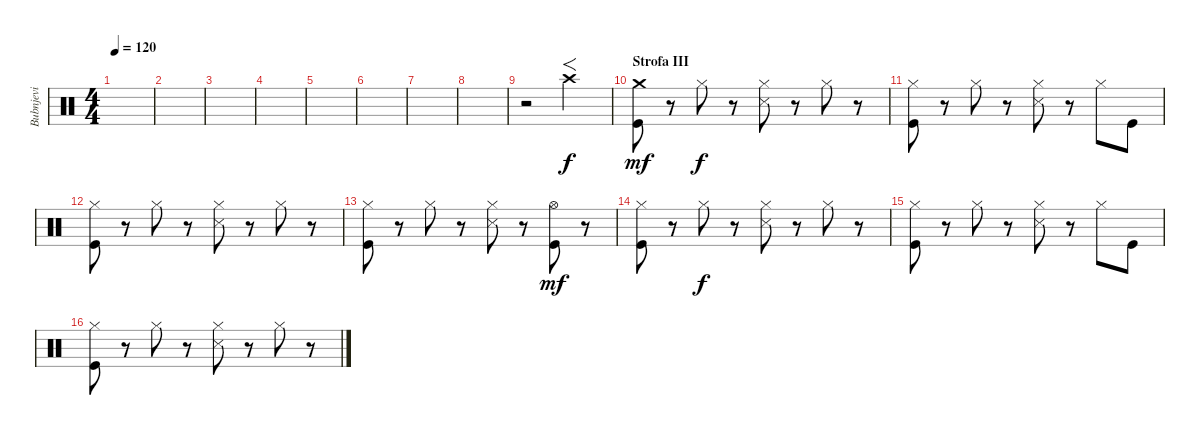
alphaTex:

\track ("Bubnjevi" "Bubnjevi") {instrument percussion}
\staff {score}
\articulation defaults
\ts (4 4)
\tempo 120
\clef neutral
\ks c
|
|
|
|
|
|
|
|
r.2 "Crash high (hit)".2{f} |
\section ("" "Strofa III")
("Crash medium (hit)" "Kick (hit)").8{dy mf} r.8 "Hi-Hat (closed)".8{dy f} r.8 ("Hi-Hat (closed)" "Snare (side stick) 3").8 r.8 "Hi-Hat (closed)".8 r.8 |
("Hi-Hat (closed)" "Kick (hit)").8 r.8 "Hi-Hat (closed)".8 r.8 ("Hi-Hat (closed)" "Snare (side stick) 3").8 r.8 "Hi-Hat (closed)".8 "Kick (hit)".8 |
("Hi-Hat (closed)" "Kick (hit)").8 r.8 "Hi-Hat (closed)".8 r.8 ("Hi-Hat (closed)" "Snare (side stick) 3").8 r.8 "Hi-Hat (closed)".8 r.8 |
("Hi-Hat (closed)" "Kick (hit)").8 r.8 "Hi-Hat (closed)".8 r.8 ("Hi-Hat (closed)" "Snare (side stick) 3").8 r.8 ("Hi-Hat (open)" "Kick (hit)").8{dy mf} r.8 |
("Hi-Hat (closed)" "Kick (hit)").8 r.8 "Hi-Hat (closed)".8{dy f} r.8 ("Hi-Hat (closed)" "Snare (side stick) 3").8 r.8 "Hi-Hat (closed)".8 r.8 |
("Hi-Hat (closed)" "Kick (hit)").8 r.8 "Hi-Hat (closed)".8 r.8 ("Hi-Hat (closed)" "Snare (side stick) 3").8 r.8 "Hi-Hat (closed)".8 "Kick (hit)".8 |
("Hi-Hat (closed)" "Kick (hit)").8 r.8 "Hi-Hat (closed)".8 r.8 ("Hi-Hat (closed)" "Snare (side stick) 3").8 r.8 "Hi-Hat (closed)".8 r.8
